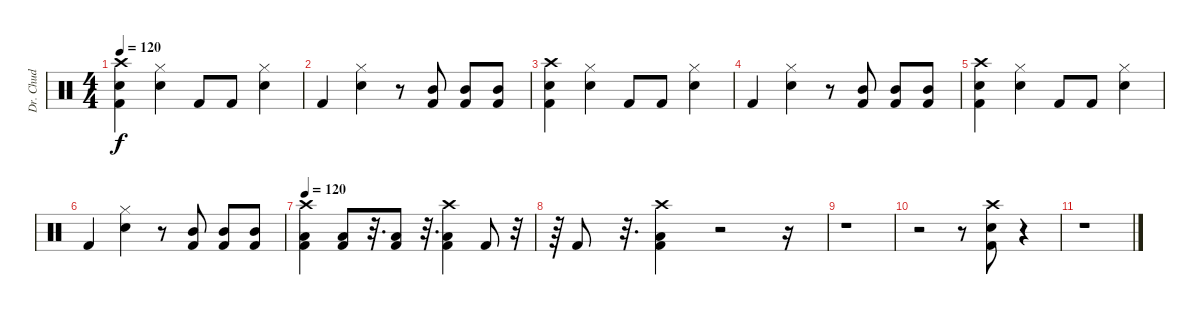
\track ("Dr. Chud" "Dr. Chud") {instrument percussion}
\staff {score}
\articulation defaults
\ts (4 4)
\tempo 120
\clef neutral
\ks c
("Crash high (hit)" "Snare (hit) 2" "Kick (hit) 2").4{dy f} ("Hi-Hat (closed)" "Snare (hit) 2").4 "Kick (hit) 2".8 "Kick (hit) 2".8 ("Hi-Hat (closed)" "Snare (hit) 2").4 |
"Kick (hit) 2".4 ("Hi-Hat (closed)" "Snare (hit) 2").4 r.8 ("Mid Tom (hit)" "Kick (hit) 2").8 ("Mid Tom (hit)" "Kick (hit) 2").8 ("Mid Tom (hit)" "Kick (hit) 2").8 |
("Crash high (hit)" "Snare (hit) 2" "Kick (hit) 2").4 ("Hi-Hat (closed)" "Snare (hit) 2").4 "Kick (hit) 2".8 "Kick (hit) 2".8 ("Hi-Hat (closed)" "Snare (hit) 2").4 |
"Kick (hit) 2".4 ("Hi-Hat (closed)" "Snare (hit) 2").4 r.8 ("Mid Tom (hit)" "Kick (hit) 2").8 ("Mid Tom (hit)" "Kick (hit) 2").8 ("Mid Tom (hit)" "Kick (hit) 2").8 |
("Crash high (hit)" "Snare (hit) 2" "Kick (hit) 2").4 ("Hi-Hat (closed)" "Snare (hit) 2").4 "Kick (hit) 2".8 "Kick (hit) 2".8 ("Hi-Hat (closed)" "Snare (hit) 2").4 |
"Kick (hit) 2".4 ("Hi-Hat (closed)" "Snare (hit) 2").4 r.8 ("Mid Tom (hit)" "Kick (hit) 2").8 ("Mid Tom (hit)" "Kick (hit) 2").8 ("Mid Tom (hit)" "Kick (hit) 2").8 |
\tempo 120
("Crash high (hit)" "Low Floor Tom (hit)" "Kick (hit) 2").4 ("Low Floor Tom (hit)" "Kick (hit) 2").8 r.32{d} ("Low Floor Tom (hit)" "Kick (hit) 2").8 r.32{d} ("Crash high (hit)" "Low Floor Tom (hit)" "Kick (hit) 2").4 "Kick (hit) 2".8 r.32 |
r.64 "Kick (hit) 2".8 r.32{d} ("Crash high (hit)" "Low Floor Tom (hit)" "Kick (hit) 2").4 r.2 r.16 |
r.1 |
r.2 r.8 ("Crash high (hit)" "Snare (hit) 2" "Kick (hit) 2").8 r.4 |
r.1
